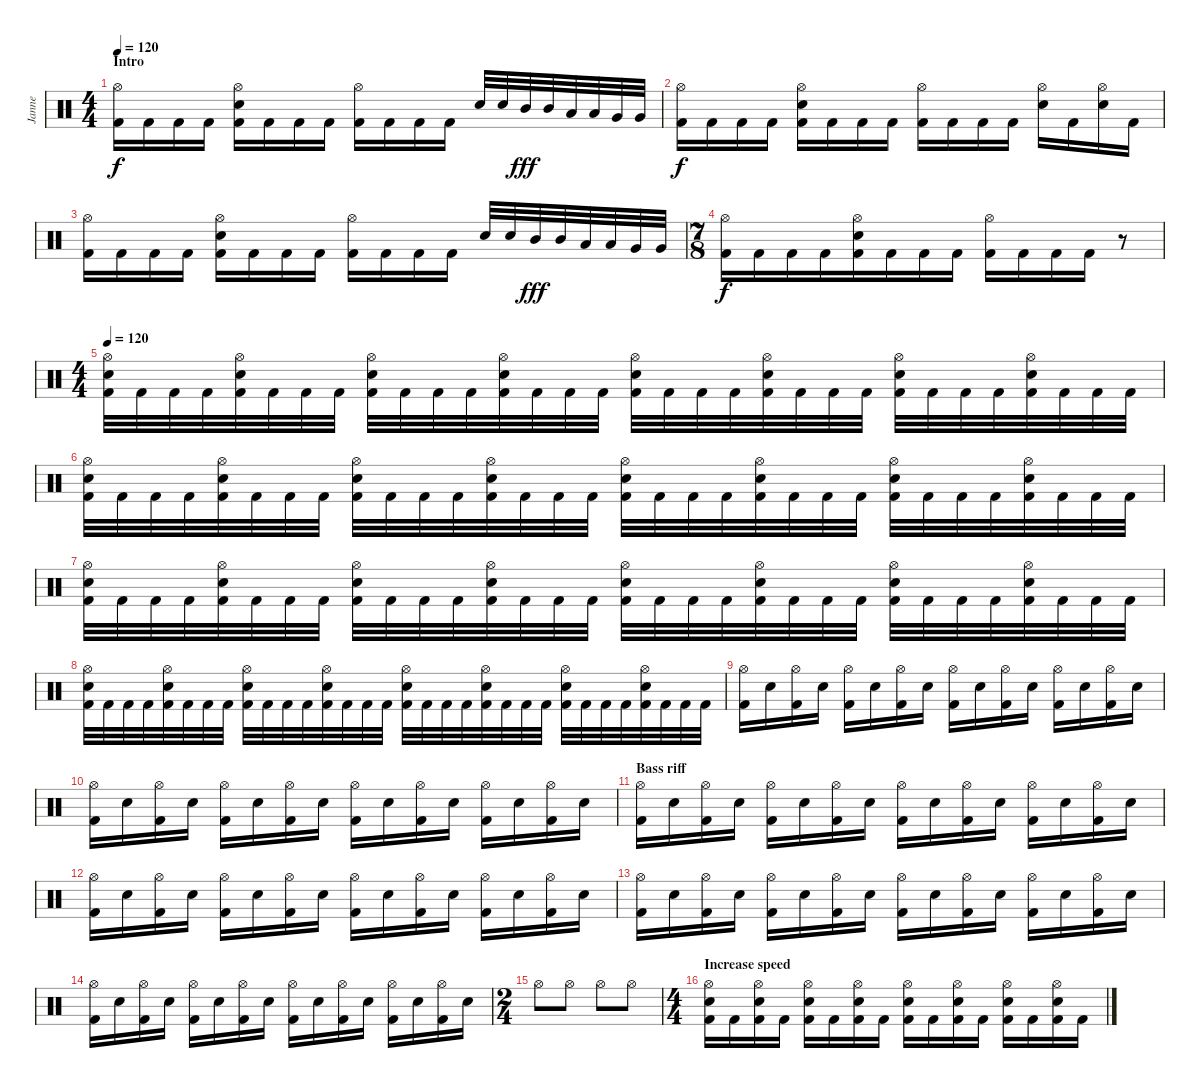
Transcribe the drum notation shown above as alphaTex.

\track ("Janne" "Janne") {instrument percussion}
\staff {score}
\articulation defaults
\ts (4 4)
\section ("" "Intro")
\tempo 120
\tempo 100
\tempo 120
\clef neutral
\ks c
("Hi-Hat (open)" "Kick (hit) 2").16{dy f} "Kick (hit) 2".16 "Kick (hit) 2".16 "Kick (hit) 2".16 ("Hi-Hat (open)" "Electric Snare (hit)" "Kick (hit) 2").16 "Kick (hit) 2".16 "Kick (hit) 2".16 "Kick (hit) 2".16 ("Hi-Hat (open)" "Kick (hit) 2").16 "Kick (hit) 2".16 "Kick (hit) 2".16 "Kick (hit) 2".16 "Electric Snare (hit)".32 "Electric Snare (hit)".32 "Mid Tom (hit)".32{dy fff} "Mid Tom (hit)".32 "Low Tom (hit)".32 "Low Tom (hit)".32 "Very Low Tom (hit)".32 "Very Low Tom (hit)".32 |
("Hi-Hat (open)" "Kick (hit) 2").16{dy f} "Kick (hit) 2".16 "Kick (hit) 2".16 "Kick (hit) 2".16 ("Hi-Hat (open)" "Electric Snare (hit)" "Kick (hit) 2").16 "Kick (hit) 2".16 "Kick (hit) 2".16 "Kick (hit) 2".16 ("Hi-Hat (open)" "Kick (hit) 2").16 "Kick (hit) 2".16 "Kick (hit) 2".16 "Kick (hit) 2".16 ("Hi-Hat (open)" "Electric Snare (hit)").16 "Kick (hit) 2".16 ("Hi-Hat (open)" "Electric Snare (hit)").16 "Kick (hit) 2".16 |
("Hi-Hat (open)" "Kick (hit) 2").16 "Kick (hit) 2".16 "Kick (hit) 2".16 "Kick (hit) 2".16 ("Hi-Hat (open)" "Electric Snare (hit)" "Kick (hit) 2").16 "Kick (hit) 2".16 "Kick (hit) 2".16 "Kick (hit) 2".16 ("Hi-Hat (open)" "Kick (hit) 2").16 "Kick (hit) 2".16 "Kick (hit) 2".16 "Kick (hit) 2".16 "Electric Snare (hit)".32 "Electric Snare (hit)".32 "Mid Tom (hit)".32{dy fff} "Mid Tom (hit)".32 "Low Tom (hit)".32 "Low Tom (hit)".32 "Very Low Tom (hit)".32 "Very Low Tom (hit)".32 |
\ts (7 8)
("Hi-Hat (open)" "Kick (hit) 2").16{dy f} "Kick (hit) 2".16 "Kick (hit) 2".16 "Kick (hit) 2".16 ("Hi-Hat (open)" "Electric Snare (hit)" "Kick (hit) 2").16 "Kick (hit) 2".16 "Kick (hit) 2".16 "Kick (hit) 2".16 ("Hi-Hat (open)" "Kick (hit) 2").16 "Kick (hit) 2".16 "Kick (hit) 2".16 "Kick (hit) 2".16 r.8 |
\ts (4 4)
\tempo 120
("Hi-Hat (open)" "Electric Snare (hit)" "Kick (hit) 2").32 "Kick (hit) 2".32 "Kick (hit) 2".32 "Kick (hit) 2".32 ("Hi-Hat (open)" "Electric Snare (hit)" "Kick (hit) 2").32 "Kick (hit) 2".32 "Kick (hit) 2".32 "Kick (hit) 2".32 ("Hi-Hat (open)" "Electric Snare (hit)" "Kick (hit) 2").32 "Kick (hit) 2".32 "Kick (hit) 2".32 "Kick (hit) 2".32 ("Hi-Hat (open)" "Electric Snare (hit)" "Kick (hit) 2").32 "Kick (hit) 2".32 "Kick (hit) 2".32 "Kick (hit) 2".32 ("Hi-Hat (open)" "Electric Snare (hit)" "Kick (hit) 2").32 "Kick (hit) 2".32 "Kick (hit) 2".32 "Kick (hit) 2".32 ("Hi-Hat (open)" "Electric Snare (hit)" "Kick (hit) 2").32 "Kick (hit) 2".32 "Kick (hit) 2".32 "Kick (hit) 2".32 ("Hi-Hat (open)" "Electric Snare (hit)" "Kick (hit) 2").32 "Kick (hit) 2".32 "Kick (hit) 2".32 "Kick (hit) 2".32 ("Hi-Hat (open)" "Electric Snare (hit)" "Kick (hit) 2").32 "Kick (hit) 2".32 "Kick (hit) 2".32 "Kick (hit) 2".32 |
("Hi-Hat (open)" "Electric Snare (hit)" "Kick (hit) 2").32 "Kick (hit) 2".32 "Kick (hit) 2".32 "Kick (hit) 2".32 ("Hi-Hat (open)" "Electric Snare (hit)" "Kick (hit) 2").32 "Kick (hit) 2".32 "Kick (hit) 2".32 "Kick (hit) 2".32 ("Hi-Hat (open)" "Electric Snare (hit)" "Kick (hit) 2").32 "Kick (hit) 2".32 "Kick (hit) 2".32 "Kick (hit) 2".32 ("Hi-Hat (open)" "Electric Snare (hit)" "Kick (hit) 2").32 "Kick (hit) 2".32 "Kick (hit) 2".32 "Kick (hit) 2".32 ("Hi-Hat (open)" "Electric Snare (hit)" "Kick (hit) 2").32 "Kick (hit) 2".32 "Kick (hit) 2".32 "Kick (hit) 2".32 ("Hi-Hat (open)" "Electric Snare (hit)" "Kick (hit) 2").32 "Kick (hit) 2".32 "Kick (hit) 2".32 "Kick (hit) 2".32 ("Hi-Hat (open)" "Electric Snare (hit)" "Kick (hit) 2").32 "Kick (hit) 2".32 "Kick (hit) 2".32 "Kick (hit) 2".32 ("Hi-Hat (open)" "Electric Snare (hit)" "Kick (hit) 2").32 "Kick (hit) 2".32 "Kick (hit) 2".32 "Kick (hit) 2".32 |
("Hi-Hat (open)" "Electric Snare (hit)" "Kick (hit) 2").32 "Kick (hit) 2".32 "Kick (hit) 2".32 "Kick (hit) 2".32 ("Hi-Hat (open)" "Electric Snare (hit)" "Kick (hit) 2").32 "Kick (hit) 2".32 "Kick (hit) 2".32 "Kick (hit) 2".32 ("Hi-Hat (open)" "Electric Snare (hit)" "Kick (hit) 2").32 "Kick (hit) 2".32 "Kick (hit) 2".32 "Kick (hit) 2".32 ("Hi-Hat (open)" "Electric Snare (hit)" "Kick (hit) 2").32 "Kick (hit) 2".32 "Kick (hit) 2".32 "Kick (hit) 2".32 ("Hi-Hat (open)" "Electric Snare (hit)" "Kick (hit) 2").32 "Kick (hit) 2".32 "Kick (hit) 2".32 "Kick (hit) 2".32 ("Hi-Hat (open)" "Electric Snare (hit)" "Kick (hit) 2").32 "Kick (hit) 2".32 "Kick (hit) 2".32 "Kick (hit) 2".32 ("Hi-Hat (open)" "Electric Snare (hit)" "Kick (hit) 2").32 "Kick (hit) 2".32 "Kick (hit) 2".32 "Kick (hit) 2".32 ("Hi-Hat (open)" "Electric Snare (hit)" "Kick (hit) 2").32 "Kick (hit) 2".32 "Kick (hit) 2".32 "Kick (hit) 2".32 |
("Hi-Hat (open)" "Electric Snare (hit)" "Kick (hit) 2").32 "Kick (hit) 2".32 "Kick (hit) 2".32 "Kick (hit) 2".32 ("Hi-Hat (open)" "Electric Snare (hit)" "Kick (hit) 2").32 "Kick (hit) 2".32 "Kick (hit) 2".32 "Kick (hit) 2".32 ("Hi-Hat (open)" "Electric Snare (hit)" "Kick (hit) 2").32 "Kick (hit) 2".32 "Kick (hit) 2".32 "Kick (hit) 2".32 ("Hi-Hat (open)" "Electric Snare (hit)" "Kick (hit) 2").32 "Kick (hit) 2".32 "Kick (hit) 2".32 "Kick (hit) 2".32 ("Hi-Hat (open)" "Electric Snare (hit)" "Kick (hit) 2").32 "Kick (hit) 2".32 "Kick (hit) 2".32 "Kick (hit) 2".32 ("Hi-Hat (open)" "Electric Snare (hit)" "Kick (hit) 2").32 "Kick (hit) 2".32 "Kick (hit) 2".32 "Kick (hit) 2".32 ("Hi-Hat (open)" "Electric Snare (hit)" "Kick (hit) 2").32 "Kick (hit) 2".32 "Kick (hit) 2".32 "Kick (hit) 2".32 ("Hi-Hat (open)" "Electric Snare (hit)" "Kick (hit) 2").32 "Kick (hit) 2".32 "Kick (hit) 2".32 "Kick (hit) 2".32 |
("Hi-Hat (open)" "Kick (hit) 2").16 "Electric Snare (hit)".16 ("Hi-Hat (open)" "Kick (hit) 2").16 "Electric Snare (hit)".16 ("Hi-Hat (open)" "Kick (hit) 2").16 "Electric Snare (hit)".16 ("Hi-Hat (open)" "Kick (hit) 2").16 "Electric Snare (hit)".16 ("Hi-Hat (open)" "Kick (hit) 2").16 "Electric Snare (hit)".16 ("Hi-Hat (open)" "Kick (hit) 2").16 "Electric Snare (hit)".16 ("Hi-Hat (open)" "Kick (hit) 2").16 "Electric Snare (hit)".16 ("Hi-Hat (open)" "Kick (hit) 2").16 "Electric Snare (hit)".16 |
("Hi-Hat (open)" "Kick (hit) 2").16 "Electric Snare (hit)".16 ("Hi-Hat (open)" "Kick (hit) 2").16 "Electric Snare (hit)".16 ("Hi-Hat (open)" "Kick (hit) 2").16 "Electric Snare (hit)".16 ("Hi-Hat (open)" "Kick (hit) 2").16 "Electric Snare (hit)".16 ("Hi-Hat (open)" "Kick (hit) 2").16 "Electric Snare (hit)".16 ("Hi-Hat (open)" "Kick (hit) 2").16 "Electric Snare (hit)".16 ("Hi-Hat (open)" "Kick (hit) 2").16 "Electric Snare (hit)".16 ("Hi-Hat (open)" "Kick (hit) 2").16 "Electric Snare (hit)".16 |
\section ("" "Bass riff")
("Hi-Hat (open)" "Kick (hit) 2").16 "Electric Snare (hit)".16 ("Hi-Hat (open)" "Kick (hit) 2").16 "Electric Snare (hit)".16 ("Hi-Hat (open)" "Kick (hit) 2").16 "Electric Snare (hit)".16 ("Hi-Hat (open)" "Kick (hit) 2").16 "Electric Snare (hit)".16 ("Hi-Hat (open)" "Kick (hit) 2").16 "Electric Snare (hit)".16 ("Hi-Hat (open)" "Kick (hit) 2").16 "Electric Snare (hit)".16 ("Hi-Hat (open)" "Kick (hit) 2").16 "Electric Snare (hit)".16 ("Hi-Hat (open)" "Kick (hit) 2").16 "Electric Snare (hit)".16 |
("Hi-Hat (open)" "Kick (hit) 2").16 "Electric Snare (hit)".16 ("Hi-Hat (open)" "Kick (hit) 2").16 "Electric Snare (hit)".16 ("Hi-Hat (open)" "Kick (hit) 2").16 "Electric Snare (hit)".16 ("Hi-Hat (open)" "Kick (hit) 2").16 "Electric Snare (hit)".16 ("Hi-Hat (open)" "Kick (hit) 2").16 "Electric Snare (hit)".16 ("Hi-Hat (open)" "Kick (hit) 2").16 "Electric Snare (hit)".16 ("Hi-Hat (open)" "Kick (hit) 2").16 "Electric Snare (hit)".16 ("Hi-Hat (open)" "Kick (hit) 2").16 "Electric Snare (hit)".16 |
("Hi-Hat (open)" "Kick (hit) 2").16 "Electric Snare (hit)".16 ("Hi-Hat (open)" "Kick (hit) 2").16 "Electric Snare (hit)".16 ("Hi-Hat (open)" "Kick (hit) 2").16 "Electric Snare (hit)".16 ("Hi-Hat (open)" "Kick (hit) 2").16 "Electric Snare (hit)".16 ("Hi-Hat (open)" "Kick (hit) 2").16 "Electric Snare (hit)".16 ("Hi-Hat (open)" "Kick (hit) 2").16 "Electric Snare (hit)".16 ("Hi-Hat (open)" "Kick (hit) 2").16 "Electric Snare (hit)".16 ("Hi-Hat (open)" "Kick (hit) 2").16 "Electric Snare (hit)".16 |
("Hi-Hat (open)" "Kick (hit) 2").16 "Electric Snare (hit)".16 ("Hi-Hat (open)" "Kick (hit) 2").16 "Electric Snare (hit)".16 ("Hi-Hat (open)" "Kick (hit) 2").16 "Electric Snare (hit)".16 ("Hi-Hat (open)" "Kick (hit) 2").16 "Electric Snare (hit)".16 ("Hi-Hat (open)" "Kick (hit) 2").16 "Electric Snare (hit)".16 ("Hi-Hat (open)" "Kick (hit) 2").16 "Electric Snare (hit)".16 ("Hi-Hat (open)" "Kick (hit) 2").16 "Electric Snare (hit)".16 ("Hi-Hat (open)" "Kick (hit) 2").16 "Electric Snare (hit)".16 |
\ts (2 4)
"Hi-Hat (open)".8 "Hi-Hat (open)".8 "Hi-Hat (open)".8 "Hi-Hat (open)".8 |
\ts (4 4)
\section ("" "Increase speed")
("Hi-Hat (open)" "Electric Snare (hit)" "Kick (hit) 2").16 "Kick (hit) 2".16 ("Hi-Hat (open)" "Electric Snare (hit)" "Kick (hit) 2").16 "Kick (hit) 2".16 ("Hi-Hat (open)" "Electric Snare (hit)" "Kick (hit) 2").16 "Kick (hit) 2".16 ("Hi-Hat (open)" "Electric Snare (hit)" "Kick (hit) 2").16 "Kick (hit) 2".16 ("Hi-Hat (open)" "Electric Snare (hit)" "Kick (hit) 2").16 "Kick (hit) 2".16 ("Hi-Hat (open)" "Electric Snare (hit)" "Kick (hit) 2").16 "Kick (hit) 2".16 ("Hi-Hat (open)" "Electric Snare (hit)" "Kick (hit) 2").16 "Kick (hit) 2".16 ("Hi-Hat (open)" "Electric Snare (hit)" "Kick (hit) 2").16 "Kick (hit) 2".16
